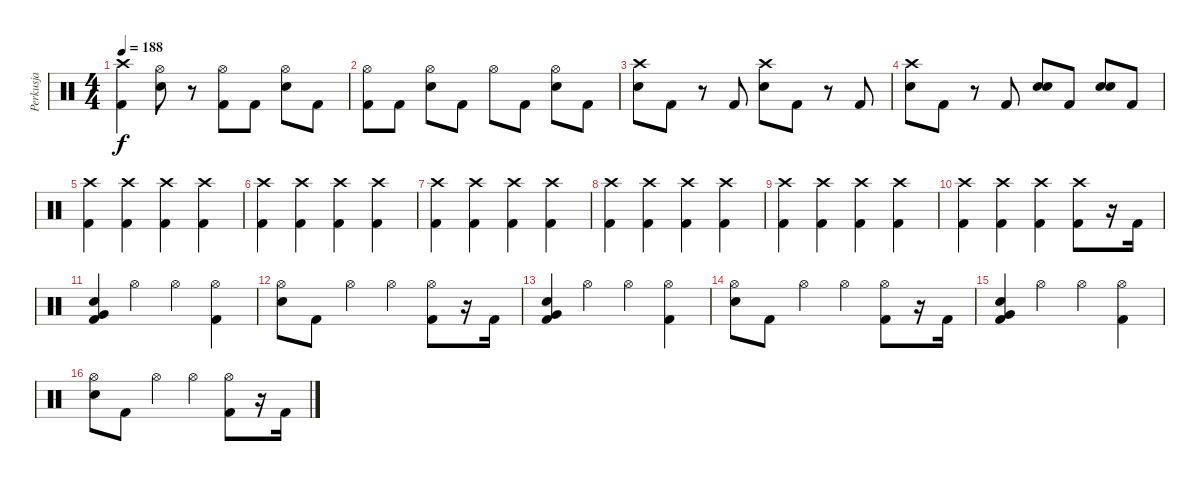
\track ("Perkusja" "Perkusja") {instrument percussion}
\staff {score}
\articulation defaults
\ts (4 4)
\tempo 188
\clef neutral
\ks c
("Crash high (hit)" "Kick (hit) 2").4{dy f} ("Hi-Hat (open)" "Electric Snare (hit)").8 r.8 ("Hi-Hat (open)" "Kick (hit) 2").8 "Kick (hit) 2".8 ("Hi-Hat (open)" "Electric Snare (hit)").8 "Kick (hit) 2".8 |
("Hi-Hat (open)" "Kick (hit) 2").8 "Kick (hit) 2".8 ("Hi-Hat (open)" "Electric Snare (hit)").8 "Kick (hit) 2".8 "Hi-Hat (open)".8 "Kick (hit) 2".8 ("Hi-Hat (open)" "Electric Snare (hit)").8 "Kick (hit) 2".8 |
("Crash high (hit)" "Electric Snare (hit)").8 "Kick (hit) 2".8 r.8 "Kick (hit) 2".8 ("Crash high (hit)" "Electric Snare (hit)").8 "Kick (hit) 2".8 r.8 "Kick (hit) 2".8 |
("Crash high (hit)" "Electric Snare (hit)").8 "Kick (hit) 2".8 r.8 "Kick (hit) 2".8 ("Electric Snare (hit)" "Electric Snare (hit)").8 "Kick (hit) 2".8 ("Electric Snare (hit)" "Electric Snare (hit)").8 "Kick (hit) 2".8 |
("Crash high (hit)" "Kick (hit) 2").4 ("Crash high (hit)" "Kick (hit) 2").4 ("Crash high (hit)" "Kick (hit) 2").4 ("Crash high (hit)" "Kick (hit) 2").4 |
("Crash high (hit)" "Kick (hit) 2").4 ("Crash high (hit)" "Kick (hit) 2").4 ("Crash high (hit)" "Kick (hit) 2").4 ("Crash high (hit)" "Kick (hit) 2").4 |
("Crash high (hit)" "Kick (hit) 2").4 ("Crash high (hit)" "Kick (hit) 2").4 ("Crash high (hit)" "Kick (hit) 2").4 ("Crash high (hit)" "Kick (hit) 2").4 |
("Crash high (hit)" "Kick (hit) 2").4 ("Crash high (hit)" "Kick (hit) 2").4 ("Crash high (hit)" "Kick (hit) 2").4 ("Crash high (hit)" "Kick (hit) 2").4 |
("Crash high (hit)" "Kick (hit) 2").4 ("Crash high (hit)" "Kick (hit) 2").4 ("Crash high (hit)" "Kick (hit) 2").4 ("Crash high (hit)" "Kick (hit) 2").4 |
("Crash high (hit)" "Kick (hit) 2").4 ("Crash high (hit)" "Kick (hit) 2").4 ("Crash high (hit)" "Kick (hit) 2").4 ("Crash high (hit)" "Kick (hit) 2").8 r.16 "Kick (hit) 2".16 |
("Very Low Tom (hit)" "Electric Snare (hit)" "Kick (hit) 2").4 "Hi-Hat (open)".4 "Hi-Hat (open)".4 ("Hi-Hat (open)" "Kick (hit) 2").4 |
("Hi-Hat (open)" "Electric Snare (hit)").8 "Kick (hit) 2".8 "Hi-Hat (open)".4 "Hi-Hat (open)".4 ("Hi-Hat (open)" "Kick (hit) 2").8 r.16 "Kick (hit) 2".16 |
("Very Low Tom (hit)" "Electric Snare (hit)" "Kick (hit) 2").4 "Hi-Hat (open)".4 "Hi-Hat (open)".4 ("Hi-Hat (open)" "Kick (hit) 2").4 |
("Hi-Hat (open)" "Electric Snare (hit)").8 "Kick (hit) 2".8 "Hi-Hat (open)".4 "Hi-Hat (open)".4 ("Hi-Hat (open)" "Kick (hit) 2").8 r.16 "Kick (hit) 2".16 |
("Very Low Tom (hit)" "Electric Snare (hit)" "Kick (hit) 2").4 "Hi-Hat (open)".4 "Hi-Hat (open)".4 ("Hi-Hat (open)" "Kick (hit) 2").4 |
("Hi-Hat (open)" "Electric Snare (hit)").8 "Kick (hit) 2".8 "Hi-Hat (open)".4 "Hi-Hat (open)".4 ("Hi-Hat (open)" "Kick (hit) 2").8 r.16 "Kick (hit) 2".16
